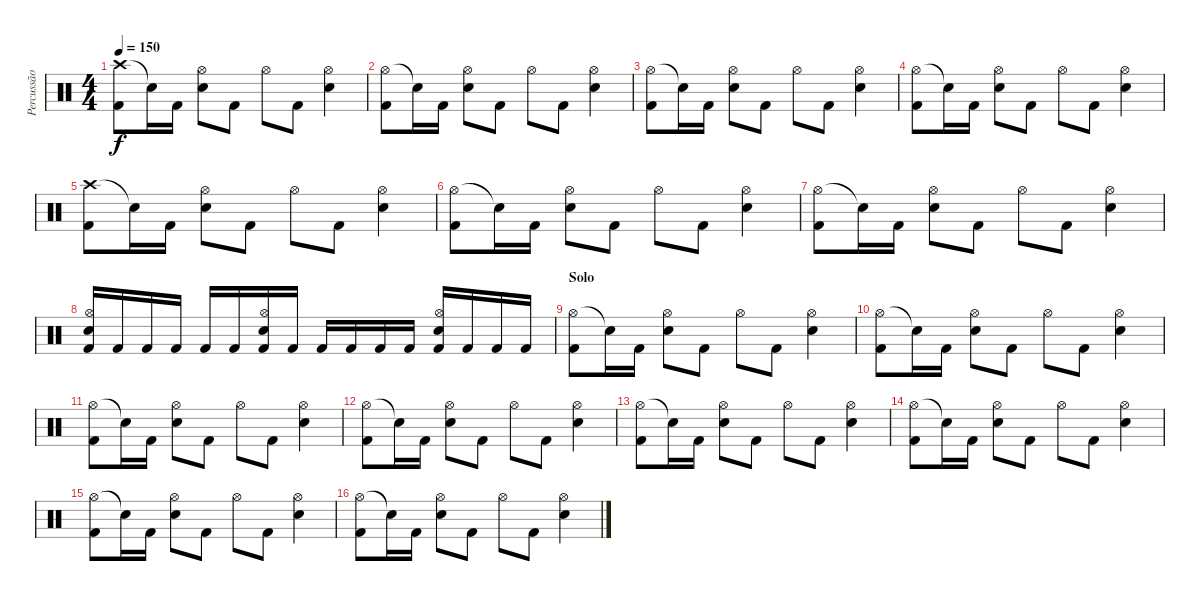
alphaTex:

\track ("Percussão" "Percussão") {instrument percussion}
\staff {score}
\articulation defaults
\ts (4 4)
\tempo 150
\clef neutral
\ks c
("Crash high (hit)" "Kick (hit) 2").8{dy f} "Snare (hit)"{t}.16 "Kick (hit) 2".16 ("Hi-Hat (open)" "Electric Snare (hit)").8 "Kick (hit) 2".8 "Hi-Hat (open)".8 "Kick (hit) 2".8 ("Hi-Hat (open)" "Electric Snare (hit)").4 |
("Hi-Hat (open)" "Kick (hit) 2").8 "Snare (hit)"{t}.16 "Kick (hit) 2".16 ("Hi-Hat (open)" "Electric Snare (hit)").8 "Kick (hit) 2".8 "Hi-Hat (open)".8 "Kick (hit) 2".8 ("Hi-Hat (open)" "Electric Snare (hit)").4 |
("Hi-Hat (open)" "Kick (hit) 2").8 "Snare (hit)"{t}.16 "Kick (hit) 2".16 ("Hi-Hat (open)" "Electric Snare (hit)").8 "Kick (hit) 2".8 "Hi-Hat (open)".8 "Kick (hit) 2".8 ("Hi-Hat (open)" "Electric Snare (hit)").4 |
("Hi-Hat (open)" "Kick (hit) 2").8 "Snare (hit)"{t}.16 "Kick (hit) 2".16 ("Hi-Hat (open)" "Electric Snare (hit)").8 "Kick (hit) 2".8 "Hi-Hat (open)".8 "Kick (hit) 2".8 ("Hi-Hat (open)" "Electric Snare (hit)").4 |
("Crash high (hit)" "Kick (hit) 2").8 "Snare (hit)"{t}.16 "Kick (hit) 2".16 ("Hi-Hat (open)" "Electric Snare (hit)").8 "Kick (hit) 2".8 "Hi-Hat (open)".8 "Kick (hit) 2".8 ("Hi-Hat (open)" "Electric Snare (hit)").4 |
("Hi-Hat (open)" "Kick (hit) 2").8 "Snare (hit)"{t}.16 "Kick (hit) 2".16 ("Hi-Hat (open)" "Electric Snare (hit)").8 "Kick (hit) 2".8 "Hi-Hat (open)".8 "Kick (hit) 2".8 ("Hi-Hat (open)" "Electric Snare (hit)").4 |
("Hi-Hat (open)" "Kick (hit) 2").8 "Snare (hit)"{t}.16 "Kick (hit) 2".16 ("Hi-Hat (open)" "Electric Snare (hit)").8 "Kick (hit) 2".8 "Hi-Hat (open)".8 "Kick (hit) 2".8 ("Hi-Hat (open)" "Electric Snare (hit)").4 |
("Hi-Hat (open)" "Electric Snare (hit)" "Kick (hit) 2").16 "Kick (hit) 2".16 "Kick (hit) 2".16 "Kick (hit) 2".16 "Kick (hit) 2".16 "Kick (hit) 2".16 ("Hi-Hat (open)" "Electric Snare (hit)" "Kick (hit) 2").16 "Kick (hit) 2".16 "Kick (hit) 2".16 "Kick (hit) 2".16 "Kick (hit) 2".16 "Kick (hit) 2".16 ("Hi-Hat (open)" "Electric Snare (hit)" "Kick (hit) 2").16 "Kick (hit) 2".16 "Kick (hit) 2".16 "Kick (hit) 2".16 |
\section ("" "Solo")
("Hi-Hat (open)" "Kick (hit) 2").8 "Snare (hit)"{t}.16 "Kick (hit) 2".16 ("Hi-Hat (open)" "Electric Snare (hit)").8 "Kick (hit) 2".8 "Hi-Hat (open)".8 "Kick (hit) 2".8 ("Hi-Hat (open)" "Electric Snare (hit)").4 |
("Hi-Hat (open)" "Kick (hit) 2").8 "Snare (hit)"{t}.16 "Kick (hit) 2".16 ("Hi-Hat (open)" "Electric Snare (hit)").8 "Kick (hit) 2".8 "Hi-Hat (open)".8 "Kick (hit) 2".8 ("Hi-Hat (open)" "Electric Snare (hit)").4 |
("Hi-Hat (open)" "Kick (hit) 2").8 "Snare (hit)"{t}.16 "Kick (hit) 2".16 ("Hi-Hat (open)" "Electric Snare (hit)").8 "Kick (hit) 2".8 "Hi-Hat (open)".8 "Kick (hit) 2".8 ("Hi-Hat (open)" "Electric Snare (hit)").4 |
("Hi-Hat (open)" "Kick (hit) 2").8 "Snare (hit)"{t}.16 "Kick (hit) 2".16 ("Hi-Hat (open)" "Electric Snare (hit)").8 "Kick (hit) 2".8 "Hi-Hat (open)".8 "Kick (hit) 2".8 ("Hi-Hat (open)" "Electric Snare (hit)").4 |
("Hi-Hat (open)" "Kick (hit) 2").8 "Snare (hit)"{t}.16 "Kick (hit) 2".16 ("Hi-Hat (open)" "Electric Snare (hit)").8 "Kick (hit) 2".8 "Hi-Hat (open)".8 "Kick (hit) 2".8 ("Hi-Hat (open)" "Electric Snare (hit)").4 |
("Hi-Hat (open)" "Kick (hit) 2").8 "Snare (hit)"{t}.16 "Kick (hit) 2".16 ("Hi-Hat (open)" "Electric Snare (hit)").8 "Kick (hit) 2".8 "Hi-Hat (open)".8 "Kick (hit) 2".8 ("Hi-Hat (open)" "Electric Snare (hit)").4 |
("Hi-Hat (open)" "Kick (hit) 2").8 "Snare (hit)"{t}.16 "Kick (hit) 2".16 ("Hi-Hat (open)" "Electric Snare (hit)").8 "Kick (hit) 2".8 "Hi-Hat (open)".8 "Kick (hit) 2".8 ("Hi-Hat (open)" "Electric Snare (hit)").4 |
("Hi-Hat (open)" "Kick (hit) 2").8 "Snare (hit)"{t}.16 "Kick (hit) 2".16 ("Hi-Hat (open)" "Electric Snare (hit)").8 "Kick (hit) 2".8 "Hi-Hat (open)".8 "Kick (hit) 2".8 ("Hi-Hat (open)" "Electric Snare (hit)").4
